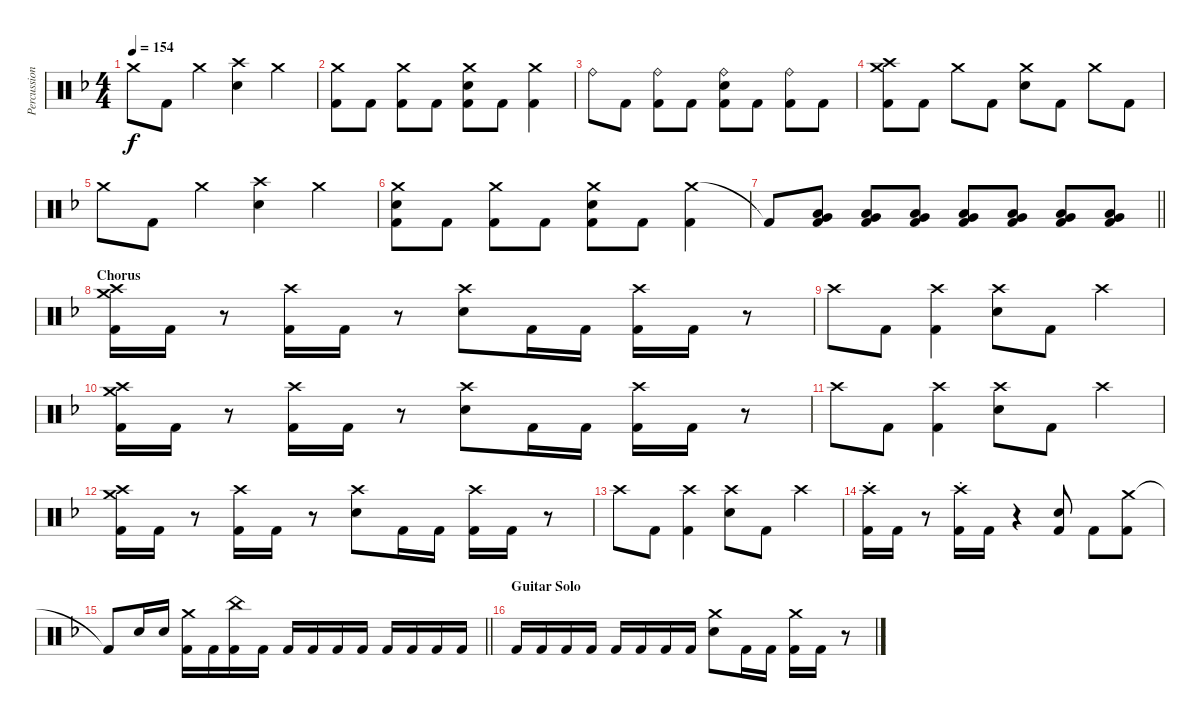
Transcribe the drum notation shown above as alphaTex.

\track ("Percussion" "Percussion") {instrument percussion}
\staff {score}
\articulation defaults
\ts (4 4)
\tempo 154
\clef neutral
\ks dminor "Crash medium (hit)".8{dy f} "Kick (hit) 2".8 "Crash medium (hit)".4
("Crash high (hit)" "Electric Snare (hit)").4 "Crash medium (hit)".4 |
("Crash medium (hit)" "Kick (hit) 2").8 "Kick (hit) 2".8 ("Crash medium (hit)" "Kick (hit) 2").8 "Kick (hit) 2".8 ("Crash medium (hit)" "Electric Snare (hit)" "Kick (hit) 2").8 "Kick (hit) 2".8 ("Crash medium (hit)" "Kick (hit) 2").4 |
"Ride (bell)".8 "Kick (hit) 2".8 ("Ride (bell)" "Kick (hit) 2").8 "Kick (hit) 2".8 ("Ride (bell)" "Electric Snare (hit)" "Kick (hit) 2").8 "Kick (hit) 2".8 ("Ride (bell)" "Kick (hit) 2").8 "Kick (hit) 2".8 |
("Crash medium (hit)" "Crash high (hit)" "Kick (hit) 2").8 "Kick (hit) 2".8 "Crash medium (hit)".8 "Kick (hit) 2".8 ("Crash medium (hit)" "Electric Snare (hit)").8 "Kick (hit) 2".8 "Crash medium (hit)".8 "Kick (hit) 2".8 |
"Crash medium (hit)".8 "Kick (hit) 2".8 "Crash medium (hit)".4 ("Crash high (hit)" "Electric Snare (hit)").4 "Crash medium (hit)".4 |
("Crash medium (hit)" "Electric Snare (hit)" "Kick (hit) 2").8 "Kick (hit) 2".8 ("Crash medium (hit)" "Kick (hit) 2").8 "Kick (hit) 2".8 ("Crash medium (hit)" "Electric Snare (hit)" "Kick (hit) 2").8 "Kick (hit) 2".8 ("Crash medium (hit)" "Kick (hit) 2").4 |
\barLineRight lightlight "Kick (hit) 2"{t}.8
("Low Tom (hit)" "Very Low Tom (hit)" "Kick (hit) 2").8 ("Low Tom (hit)" "Very Low Tom (hit)" "Kick (hit) 2").8 ("Low Tom (hit)" "Very Low Tom (hit)" "Kick (hit) 2").8 ("Low Tom (hit)" "Very Low Tom (hit)" "Kick (hit) 2").8 ("Low Tom (hit)" "Very Low Tom (hit)" "Kick (hit) 2").8 ("Low Tom (hit)" "Very Low Tom (hit)" "Kick (hit) 2").8 ("Low Tom (hit)" "Very Low Tom (hit)" "Kick (hit) 2").8 |
\section ("" "Chorus")
("Crash medium (hit)" "Crash high (hit)" "Kick (hit) 2").16 "Kick (hit) 2".16 r.8 ("Crash high (hit)" "Kick (hit) 2").16 "Kick (hit) 2".16 r.8 ("Crash high (hit)" "Electric Snare (hit)").8 "Kick (hit) 2".16 "Kick (hit) 2".16 ("Crash high (hit)" "Kick (hit) 2").16 "Kick (hit) 2".16 r.8 |
"Crash high (hit)".8 "Kick (hit) 2".8 ("Crash high (hit)" "Kick (hit) 2").4 ("Crash high (hit)" "Electric Snare (hit)").8 "Kick (hit) 2".8 "Crash high (hit)".4 |
("Crash medium (hit)" "Crash high (hit)" "Kick (hit) 2").16 "Kick (hit) 2".16 r.8 ("Crash high (hit)" "Kick (hit) 2").16 "Kick (hit) 2".16 r.8 ("Crash high (hit)" "Electric Snare (hit)").8 "Kick (hit) 2".16 "Kick (hit) 2".16 ("Crash high (hit)" "Kick (hit) 2").16 "Kick (hit) 2".16 r.8 |
"Crash high (hit)".8 "Kick (hit) 2".8 ("Crash high (hit)" "Kick (hit) 2").4 ("Crash high (hit)" "Electric Snare (hit)").8 "Kick (hit) 2".8 "Crash high (hit)".4 |
("Crash medium (hit)" "Crash high (hit)" "Kick (hit) 2").16 "Kick (hit) 2".16 r.8 ("Crash high (hit)" "Kick (hit) 2").16 "Kick (hit) 2".16 r.8 ("Crash high (hit)" "Electric Snare (hit)").8 "Kick (hit) 2".16 "Kick (hit) 2".16 ("Crash high (hit)" "Kick (hit) 2").16 "Kick (hit) 2".16 r.8 |
"Crash high (hit)".8 "Kick (hit) 2".8 ("Crash high (hit)" "Kick (hit) 2").4 ("Crash high (hit)" "Electric Snare (hit)").8 "Kick (hit) 2".8 "Crash high (hit)".4 |
("Crash high (hit)"{st} "Kick (hit) 2").16 "Kick (hit) 2".16 r.8{volume 0} ("Crash high (hit)"{st} "Kick (hit) 2").16{volume 14} "Kick (hit) 2".16 r.4{volume 0} ("Electric Snare (hit)" "Kick (hit) 2").8{volume 14} "Kick (hit) 2".8 ("Crash medium (hit)" "Kick (hit) 2").8 |
\barLineRight lightlight "Kick (hit) 2"{t}.8 "Electric Snare (hit)".16 "Electric Snare (hit)".16
("Crash medium (hit)" "Kick (hit) 2").16 "Kick (hit) 2".16 ("China (hit)" "Kick (hit) 2").16 "Kick (hit) 2".16 "Kick (hit) 2".16 "Kick (hit) 2".16 "Kick (hit) 2".16 "Kick (hit) 2".16 "Kick (hit) 2".16 "Kick (hit) 2".16 "Kick (hit) 2".16 "Kick (hit) 2".16 |
\section ("" "Guitar Solo")
"Kick (hit) 2".16 "Kick (hit) 2".16 "Kick (hit) 2".16 "Kick (hit) 2".16 "Kick (hit) 2".16 "Kick (hit) 2".16 "Kick (hit) 2".16 "Kick (hit) 2".16 ("Crash medium (hit)" "Electric Snare (hit)").8 "Kick (hit) 2".16 "Kick (hit) 2".16 ("Crash medium (hit)" "Kick (hit) 2").16 "Kick (hit) 2".16 r.8
